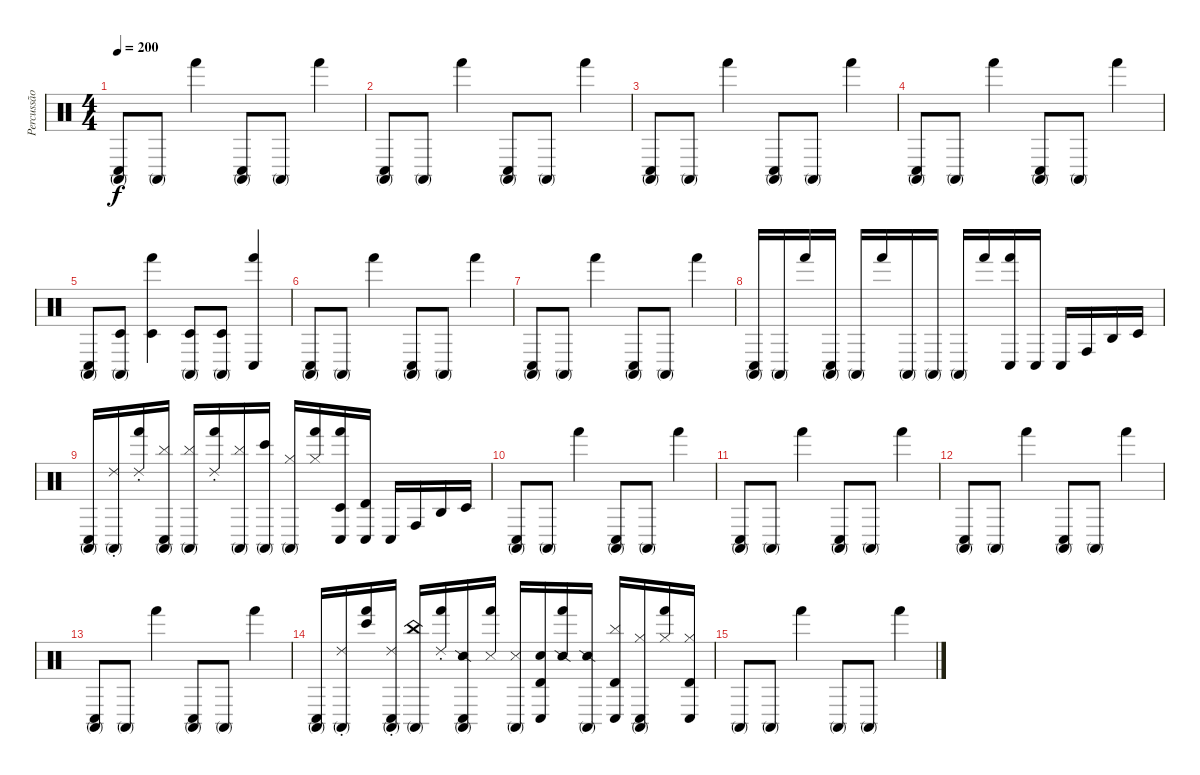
\track ("Percussão" "Percussão") {instrument percussion}
\staff {score}
\articulation defaults
\ts (4 4)
\tempo 200
\clef neutral
\ks c
("Conga high (mute)" "Conga low (hit)").8{dy f} "Conga high (mute)".8 "Hand (hit)".4 ("Conga high (mute)" "Conga low (hit)").8 "Conga high (mute)".8 "Hand (hit)".4 |
("Conga high (mute)" "Conga low (hit)").8 "Conga high (mute)".8 "Hand (hit)".4 ("Conga high (mute)" "Conga low (hit)").8 "Conga high (mute)".8 "Hand (hit)".4 |
("Conga high (mute)" "Conga low (hit)").8 "Conga high (mute)".8 "Hand (hit)".4 ("Conga high (mute)" "Conga low (hit)").8 "Conga high (mute)".8 "Hand (hit)".4 |
("Conga high (mute)" "Conga low (hit)").8 "Conga high (mute)".8 "Hand (hit)".4 ("Conga high (mute)" "Conga low (hit)").8 "Conga high (mute)".8 "Hand (hit)".4 |
("Conga high (mute)" "Conga low (hit)").8 ("Conga high (mute)" "Timbale low (hit)").8 ("Hand (hit)" "Timbale low (hit)").4 ("Conga high (mute)" "Timbale low (hit)").8 ("Conga high (mute)" "Timbale low (hit)").8 ("Hand (hit)" "Conga low (hit)").4 |
("Conga high (mute)" "Conga low (hit)").8 "Conga high (mute)".8 "Hand (hit)".4 ("Conga high (mute)" "Conga low (hit)").8 "Conga high (mute)".8 "Hand (hit)".4 |
("Conga high (mute)" "Conga low (hit)").8 "Conga high (mute)".8 "Hand (hit)".4 ("Conga high (mute)" "Conga low (hit)").8 "Conga high (mute)".8 "Hand (hit)".4 |
("Conga high (mute)" "Conga low (hit)").16 "Conga high (mute)".16 "Hand (hit)".16 ("Conga high (mute)" "Conga low (hit)").16 "Conga high (mute)".16 "Hand (hit)".16 "Conga high (mute)".16 "Conga high (mute)".16 "Conga high (mute)".16 "Hand (hit)".16 ("Conga low (hit)" "Hand (hit)").16 "Conga low (hit)".16 "Conga low (hit)".16 "Conga high (hit)".16 "Agogo high (hit)".16 "Timbale low (hit)".16 |
("Conga high (mute)" "Conga low (hit)").16 ("Conga high (mute)" "Ride (choke) 2").16 ("Hand (hit)" "Ride (choke) 2").16 ("Conga high (mute)" "Conga low (hit)" "Cymbal (hit)").16 ("Conga high (mute)" "Cymbal (hit)").16 ("Hand (hit)" "Ride (choke) 2").16 ("Conga high (mute)" "Cymbal (hit)").16 ("Conga high (mute)" "Bongo High (hit)").16 ("Conga high (mute)" "Hi-Hat (closed)").16 ("Hand (hit)" "Hi-Hat (closed)").16 ("Conga low (hit)" "Hand (hit)" "Timbale low (hit)").16 ("Conga low (hit)" "Timbale high (hit)").16 "Conga low (hit)".16 "Conga high (hit)".16 "Agogo high (hit)".16 "Timbale low (hit)".16 |
("Conga high (mute)" "Conga low (hit)").8 "Conga high (mute)".8 "Hand (hit)".4 ("Conga high (mute)" "Conga low (hit)").8 "Conga high (mute)".8 "Hand (hit)".4 |
("Conga high (mute)" "Conga low (hit)").8 "Conga high (mute)".8 "Hand (hit)".4 ("Conga high (mute)" "Conga low (hit)").8 "Conga high (mute)".8 "Hand (hit)".4 |
("Conga high (mute)" "Conga low (hit)").8 "Conga high (mute)".8 "Hand (hit)".4 ("Conga high (mute)" "Conga low (hit)").8 "Conga high (mute)".8 "Hand (hit)".4 |
("Conga high (mute)" "Conga low (hit)").8 "Conga high (mute)".8 "Hand (hit)".4 ("Conga high (mute)" "Conga low (hit)").8 "Conga high (mute)".8 "Hand (hit)".4 |
("Conga high (mute)" "Conga low (hit)").16 ("Conga high (mute)" "Ride (choke) 2").16 ("Hand (hit)" "Bongo High (hit)").16 ("Conga high (mute)" "Conga low (hit)" "Ride (choke) 2").16 ("Conga high (mute)" "China (hit)").16 ("Hand (hit)" "Ride (choke) 2").16 ("Conga high (mute)" "Conga low (hit)" "Snare (side stick) 2").16 ("Hand (hit)" "Metronome (hit)").16 ("Conga high (mute)" "Metronome (hit)").16 ("Timbale high (hit)" "Conga low (hit)" "Snare (hit) 2").16 ("Hand (hit)" "Snare (side stick) 2").16 ("Conga high (mute)" "Snare (side stick) 2").16 ("Timbale high (hit)" "Conga low (hit)" "Cymbal (hit)").16 ("Conga high (mute)" "Conga low (hit)" "Hi-Hat (closed)").16 ("Hand (hit)" "Hi-Hat (closed)").16 ("Timbale high (hit)" "Conga low (hit)" "Hi-Hat (closed)").16 |
"Conga high (mute)".8 "Conga high (mute)".8 "Hand (hit)".4 "Conga high (mute)".8 "Conga high (mute)".8 "Hand (hit)".4
